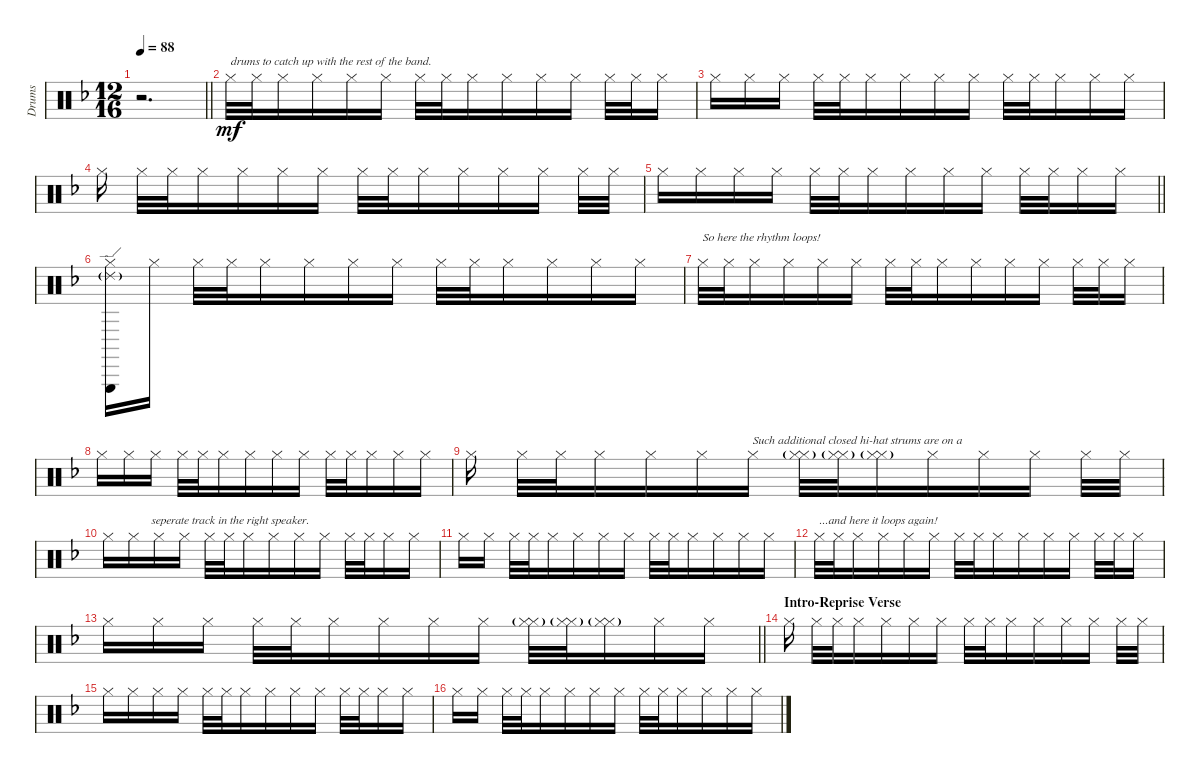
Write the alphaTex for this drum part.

\track ("Drums" "Drums") {instrument percussion}
\staff {score}
\articulation defaults
\ts (12 16)
\tempo 88
\clef neutral
\barLineRight lightlight
\ks dminor
r.2{d dy f} |
"Hi-Hat (closed)".32{txt "drums to catch up with the rest of the band." dy mf} "Hi-Hat (closed)".32 "Hi-Hat (closed)".16 "Hi-Hat (closed)".16{beam merge} "Hi-Hat (closed)".16 "Hi-Hat (closed)".16{beam split} "Hi-Hat (closed)".32 "Hi-Hat (closed)".32{beam merge} "Hi-Hat (closed)".16 "Hi-Hat (closed)".16 "Hi-Hat (closed)".16{beam merge} "Hi-Hat (closed)".16{beam split} "Hi-Hat (closed)".32 "Hi-Hat (closed)".32 "Hi-Hat (closed)".16 |
"Hi-Hat (closed)".16 "Hi-Hat (closed)".16 "Hi-Hat (closed)".16{beam split} "Hi-Hat (closed)".32 "Hi-Hat (closed)".32{beam merge} "Hi-Hat (closed)".16 "Hi-Hat (closed)".16{beam merge} "Hi-Hat (closed)".16{beam merge} "Hi-Hat (closed)".16{beam split} "Hi-Hat (closed)".32 "Hi-Hat (closed)".32{beam merge} "Hi-Hat (closed)".16 "Hi-Hat (closed)".16 "Hi-Hat (closed)".16 |
"Hi-Hat (closed)".16{beam split} "Hi-Hat (closed)".32 "Hi-Hat (closed)".32{beam merge} "Hi-Hat (closed)".16{beam merge} "Hi-Hat (closed)".16 "Hi-Hat (closed)".16{beam merge} "Hi-Hat (closed)".16{beam split} "Hi-Hat (closed)".32 "Hi-Hat (closed)".32{beam merge} "Hi-Hat (closed)".16 "Hi-Hat (closed)".16{beam merge} "Hi-Hat (closed)".16{beam merge} "Hi-Hat (closed)".16{beam split} "Hi-Hat (closed)".32 "Hi-Hat (closed)".32 |
\barLineRight lightlight "Hi-Hat (closed)".16 "Hi-Hat (closed)".16 "Hi-Hat (closed)".16{beam merge} "Hi-Hat (closed)".16{beam split} "Hi-Hat (closed)".32 "Hi-Hat (closed)".32{beam merge} "Hi-Hat (closed)".16{beam merge} "Hi-Hat (closed)".16{beam merge} "Hi-Hat (closed)".16{beam merge} "Hi-Hat (closed)".16{beam split} "Hi-Hat (closed)".32 "Hi-Hat (closed)".32{beam merge} "Hi-Hat (closed)".16 "Hi-Hat (closed)".16
|
("Hi-Hat (closed)" "Triangle (hit)" "Ride (edge) 2"{g}).16{beam merge} "Hi-Hat (closed)".16{beam split} "Hi-Hat (closed)".32 "Hi-Hat (closed)".32{beam merge} "Hi-Hat (closed)".16{beam merge} "Hi-Hat (closed)".16{beam merge} "Hi-Hat (closed)".16{beam merge} "Hi-Hat (closed)".16{beam split} "Hi-Hat (closed)".32 "Hi-Hat (closed)".32{beam merge} "Hi-Hat (closed)".16{beam merge} "Hi-Hat (closed)".16{beam merge} "Hi-Hat (closed)".16{beam merge} "Hi-Hat (closed)".16 |
"Hi-Hat (closed)".32{txt "So here the rhythm loops!"} "Hi-Hat (closed)".32 "Hi-Hat (closed)".16 "Hi-Hat (closed)".16{beam merge} "Hi-Hat (closed)".16 "Hi-Hat (closed)".16{beam split} "Hi-Hat (closed)".32 "Hi-Hat (closed)".32{beam merge} "Hi-Hat (closed)".16 "Hi-Hat (closed)".16 "Hi-Hat (closed)".16{beam merge} "Hi-Hat (closed)".16{beam split} "Hi-Hat (closed)".32 "Hi-Hat (closed)".32 "Hi-Hat (closed)".16 |
"Hi-Hat (closed)".16 "Hi-Hat (closed)".16 "Hi-Hat (closed)".16{beam split} "Hi-Hat (closed)".32 "Hi-Hat (closed)".32{beam merge} "Hi-Hat (closed)".16 "Hi-Hat (closed)".16{beam merge} "Hi-Hat (closed)".16{beam merge} "Hi-Hat (closed)".16{beam split} "Hi-Hat (closed)".32 "Hi-Hat (closed)".32{beam merge} "Hi-Hat (closed)".16 "Hi-Hat (closed)".16 "Hi-Hat (closed)".16 |
"Hi-Hat (closed)".16{beam split} "Hi-Hat (closed)".32 "Hi-Hat (closed)".32{beam merge} "Hi-Hat (closed)".16{beam merge} "Hi-Hat (closed)".16 "Hi-Hat (closed)".16{beam merge} "Hi-Hat (closed)".16{txt "Such additional closed hi-hat strums are on a" beam split} ("Hi-Hat (closed)" "Hi-Hat (closed)"{g}).32 ("Hi-Hat (closed)" "Hi-Hat (closed)"{g}).32{beam merge} ("Hi-Hat (closed)" "Hi-Hat (closed)"{g}).16 "Hi-Hat (closed)".16{beam merge} "Hi-Hat (closed)".16{beam merge} "Hi-Hat (closed)".16{beam split} "Hi-Hat (closed)".32 "Hi-Hat (closed)".32 |
"Hi-Hat (closed)".16 "Hi-Hat (closed)".16{txt "      seperate track in the right speaker."} "Hi-Hat (closed)".16{beam merge} "Hi-Hat (closed)".16{beam split} "Hi-Hat (closed)".32 "Hi-Hat (closed)".32{beam merge} "Hi-Hat (closed)".16{beam merge} "Hi-Hat (closed)".16{beam merge} "Hi-Hat (closed)".16{beam merge} "Hi-Hat (closed)".16{beam split} "Hi-Hat (closed)".32 "Hi-Hat (closed)".32{beam merge} "Hi-Hat (closed)".16 "Hi-Hat (closed)".16 |
"Hi-Hat (closed)".16{beam merge} "Hi-Hat (closed)".16{beam split} "Hi-Hat (closed)".32 "Hi-Hat (closed)".32{beam merge} "Hi-Hat (closed)".16{beam merge} "Hi-Hat (closed)".16{beam merge} "Hi-Hat (closed)".16{beam merge} "Hi-Hat (closed)".16{beam split} "Hi-Hat (closed)".32 "Hi-Hat (closed)".32{beam merge} "Hi-Hat (closed)".16{beam merge} "Hi-Hat (closed)".16{beam merge} "Hi-Hat (closed)".16{beam merge} "Hi-Hat (closed)".16 |
"Hi-Hat (closed)".32{txt "...and here it loops again!"} "Hi-Hat (closed)".32 "Hi-Hat (closed)".16 "Hi-Hat (closed)".16{beam merge} "Hi-Hat (closed)".16 "Hi-Hat (closed)".16{beam split} "Hi-Hat (closed)".32 "Hi-Hat (closed)".32{beam merge} "Hi-Hat (closed)".16 "Hi-Hat (closed)".16 "Hi-Hat (closed)".16{beam merge} "Hi-Hat (closed)".16{beam split} "Hi-Hat (closed)".32 "Hi-Hat (closed)".32 "Hi-Hat (closed)".16 |
\barLineRight lightlight "Hi-Hat (closed)".16 "Hi-Hat (closed)".16 "Hi-Hat (closed)".16{beam split} "Hi-Hat (closed)".32 "Hi-Hat (closed)".32{beam merge} "Hi-Hat (closed)".16 "Hi-Hat (closed)".16{beam merge} "Hi-Hat (closed)".16{beam merge} "Hi-Hat (closed)".16{beam split}
("Hi-Hat (closed)" "Hi-Hat (closed)"{g}).32 ("Hi-Hat (closed)" "Hi-Hat (closed)"{g}).32{beam merge} ("Hi-Hat (closed)" "Hi-Hat (closed)"{g}).16 "Hi-Hat (closed)".16 "Hi-Hat (closed)".16 |
\section ("" "Intro-Reprise Verse")
"Hi-Hat (closed)".16{beam split} "Hi-Hat (closed)".32 "Hi-Hat (closed)".32{beam merge} "Hi-Hat (closed)".16{beam merge} "Hi-Hat (closed)".16 "Hi-Hat (closed)".16{beam merge} "Hi-Hat (closed)".16{beam split} "Hi-Hat (closed)".32 "Hi-Hat (closed)".32{beam merge} "Hi-Hat (closed)".16 "Hi-Hat (closed)".16{beam merge} "Hi-Hat (closed)".16{beam merge} "Hi-Hat (closed)".16{beam split} "Hi-Hat (closed)".32 "Hi-Hat (closed)".32 |
"Hi-Hat (closed)".16 "Hi-Hat (closed)".16 "Hi-Hat (closed)".16{beam merge} "Hi-Hat (closed)".16{beam split} "Hi-Hat (closed)".32 "Hi-Hat (closed)".32{beam merge} "Hi-Hat (closed)".16{beam merge} "Hi-Hat (closed)".16{beam merge} "Hi-Hat (closed)".16{beam merge} "Hi-Hat (closed)".16{beam split} "Hi-Hat (closed)".32 "Hi-Hat (closed)".32{beam merge} "Hi-Hat (closed)".16 "Hi-Hat (closed)".16 |
"Hi-Hat (closed)".16{beam merge} "Hi-Hat (closed)".16{beam split} "Hi-Hat (closed)".32 "Hi-Hat (closed)".32{beam merge} "Hi-Hat (closed)".16{beam merge} "Hi-Hat (closed)".16{beam merge} "Hi-Hat (closed)".16{beam merge} "Hi-Hat (closed)".16{beam split} "Hi-Hat (closed)".32 "Hi-Hat (closed)".32{beam merge} "Hi-Hat (closed)".16{beam merge} "Hi-Hat (closed)".16{beam merge} "Hi-Hat (closed)".16{beam merge} "Hi-Hat (closed)".16
